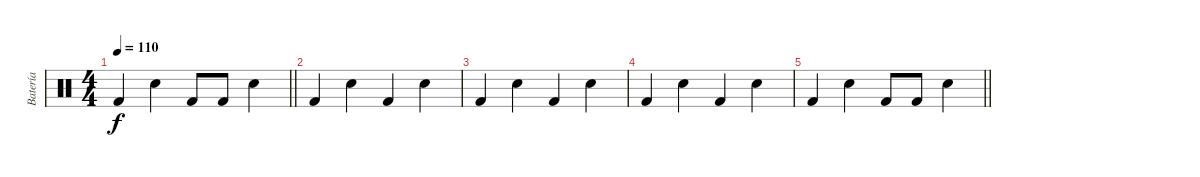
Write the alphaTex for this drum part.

\track ("Batería" "Batería") {instrument percussion}
\staff {score}
\articulation defaults
\ts (4 4)
\tempo 110
\clef neutral
\barLineRight lightlight
\ks c "Kick (hit) 2".4{dy f} "Snare (hit) 2".4 "Kick (hit) 2".8 "Kick (hit) 2".8 "Snare (hit) 2".4
|
"Kick (hit) 2".4 "Snare (hit) 2".4 "Kick (hit) 2".4 "Snare (hit) 2".4 |
"Kick (hit) 2".4 "Snare (hit) 2".4 "Kick (hit) 2".4 "Snare (hit) 2".4 |
"Kick (hit) 2".4 "Snare (hit) 2".4 "Kick (hit) 2".4 "Snare (hit) 2".4 |
\barLineRight lightlight "Kick (hit) 2".4 "Snare (hit) 2".4 "Kick (hit) 2".8 "Kick (hit) 2".8 "Snare (hit) 2".4
